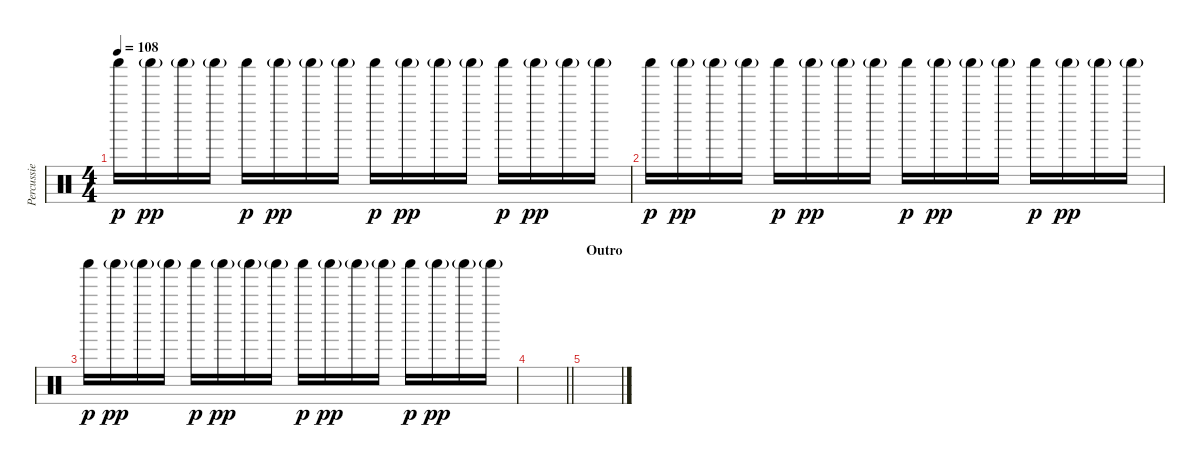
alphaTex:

\track ("Percussie" "Percussie") {instrument percussion}
\staff {score}
\articulation defaults
\ts (4 4)
\tempo 108
\clef neutral
\ks c "Shaker (hit)".16{dy p} "Shaker (hit)"{g}.16{dy pp} "Shaker (hit)"{g}.16 "Shaker (hit)"{g}.16 "Shaker (hit)".16{dy p} "Shaker (hit)"{g}.16{dy pp} "Shaker (hit)"{g}.16 "Shaker (hit)"{g}.16 "Shaker (hit)".16{dy p} "Shaker (hit)"{g}.16{dy pp} "Shaker (hit)"{g}.16 "Shaker (hit)"{g}.16 "Shaker (hit)".16{dy p} "Shaker (hit)"{g}.16{dy pp} "Shaker (hit)"{g}.16 "Shaker (hit)"{g}.16
|
"Shaker (hit)".16{dy p} "Shaker (hit)"{g}.16{dy pp} "Shaker (hit)"{g}.16 "Shaker (hit)"{g}.16 "Shaker (hit)".16{dy p} "Shaker (hit)"{g}.16{dy pp} "Shaker (hit)"{g}.16 "Shaker (hit)"{g}.16 "Shaker (hit)".16{dy p} "Shaker (hit)"{g}.16{dy pp} "Shaker (hit)"{g}.16 "Shaker (hit)"{g}.16 "Shaker (hit)".16{dy p} "Shaker (hit)"{g}.16{dy pp} "Shaker (hit)"{g}.16 "Shaker (hit)"{g}.16 |
"Shaker (hit)".16{dy p} "Shaker (hit)"{g}.16{dy pp} "Shaker (hit)"{g}.16 "Shaker (hit)"{g}.16 "Shaker (hit)".16{dy p} "Shaker (hit)"{g}.16{dy pp} "Shaker (hit)"{g}.16 "Shaker (hit)"{g}.16 "Shaker (hit)".16{dy p} "Shaker (hit)"{g}.16{dy pp} "Shaker (hit)"{g}.16 "Shaker (hit)"{g}.16 "Shaker (hit)".16{dy p} "Shaker (hit)"{g}.16{dy pp} "Shaker (hit)"{g}.16 "Shaker (hit)"{g}.16 |
\barLineRight lightlight
|
\section ("" "Outro")
